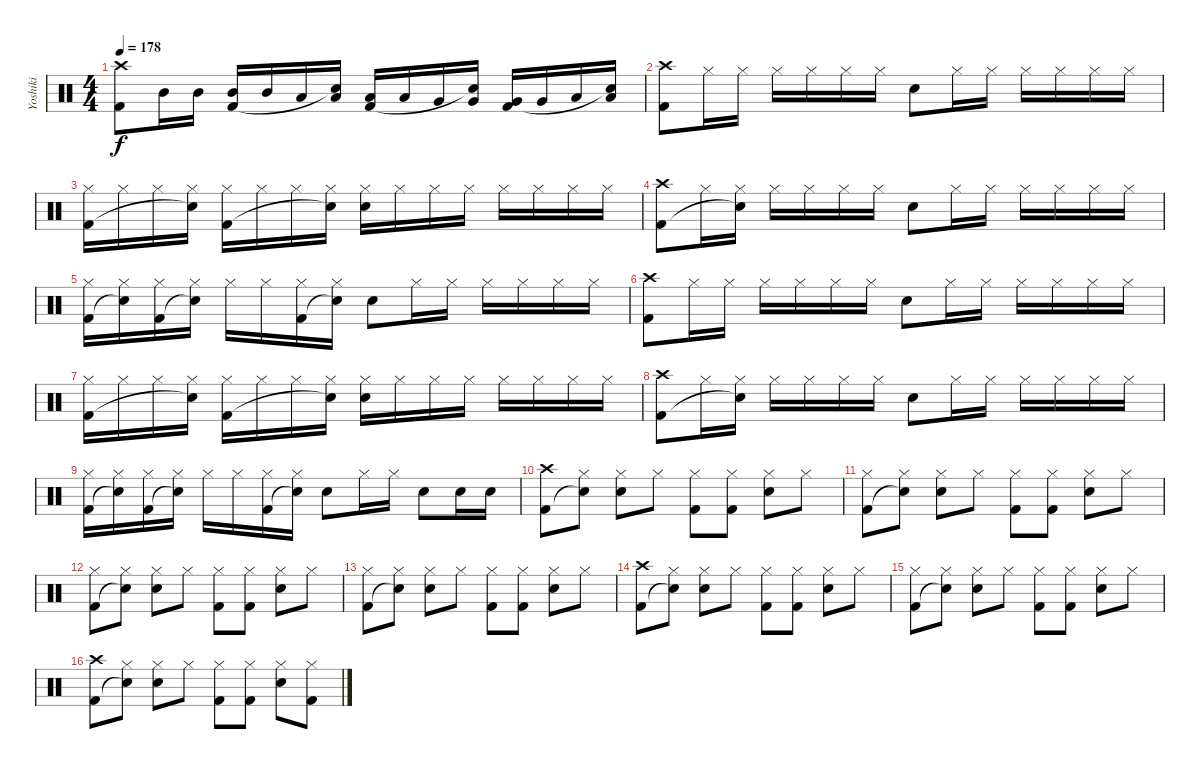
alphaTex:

\track ("Yoshiki" "Yoshiki") {instrument percussion}
\staff {score}
\articulation defaults
\ts (4 4)
\tempo 178
\clef neutral
\ks c
("Crash high (hit)" "Kick (hit) 2").8{dy f} "Mid Tom (hit)".16 "Mid Tom (hit)".16 ("Mid Tom (hit)" "Kick (hit) 2").16 "Mid Tom (hit)".16 "Low Tom (hit)".16 ("Low Tom (hit)" "Snare (hit)"{t}).16 ("Low Tom (hit)" "Kick (hit) 2").16 "Low Tom (hit)".16 "Very Low Tom (hit)".16 ("Very Low Tom (hit)" "Snare (hit)"{t}).16 ("Very Low Tom (hit)" "Kick (hit) 2").16 "Very Low Tom (hit)".16 "Low Floor Tom (hit)".16 ("Low Floor Tom (hit)" "Snare (hit)"{t}).16 |
\section ("" "")
("Crash high (hit)" "Kick (hit) 2").8 "Hi-Hat (closed)".16 "Hi-Hat (closed)".16 "Hi-Hat (closed)".16 "Hi-Hat (closed)".16 "Hi-Hat (closed)".16 "Hi-Hat (closed)".16 "Snare (hit) 2".8 "Hi-Hat (closed)".16 "Hi-Hat (closed)".16 "Hi-Hat (closed)".16 "Hi-Hat (closed)".16 "Hi-Hat (closed)".16 "Hi-Hat (closed)".16 |
("Hi-Hat (closed)" "Kick (hit) 2").16 "Hi-Hat (closed)".16 "Hi-Hat (closed)".16 ("Hi-Hat (closed)" "Snare (hit)"{t}).16 ("Hi-Hat (closed)" "Kick (hit) 2").16 "Hi-Hat (closed)".16 "Hi-Hat (closed)".16 ("Hi-Hat (closed)" "Snare (hit)"{t}).16 ("Hi-Hat (closed)" "Snare (hit) 2").16 "Hi-Hat (closed)".16 "Hi-Hat (closed)".16 "Hi-Hat (closed)".16 "Hi-Hat (closed)".16 "Hi-Hat (closed)".16 "Hi-Hat (closed)".16 "Hi-Hat (closed)".16 |
("Crash high (hit)" "Kick (hit) 2").8 "Hi-Hat (closed)".16 ("Hi-Hat (closed)" "Snare (hit)"{t}).16 "Hi-Hat (closed)".16 "Hi-Hat (closed)".16 "Hi-Hat (closed)".16 "Hi-Hat (closed)".16 "Snare (hit) 2".8 "Hi-Hat (closed)".16 "Hi-Hat (closed)".16 "Hi-Hat (closed)".16 "Hi-Hat (closed)".16 "Hi-Hat (closed)".16 "Hi-Hat (closed)".16 |
("Hi-Hat (closed)" "Kick (hit) 2").16 ("Hi-Hat (closed)" "Snare (hit)"{t}).16 ("Hi-Hat (closed)" "Kick (hit) 2").16 ("Hi-Hat (closed)" "Snare (hit)"{t}).16 "Hi-Hat (closed)".16 "Hi-Hat (closed)".16 ("Hi-Hat (closed)" "Kick (hit) 2").16 ("Hi-Hat (closed)" "Snare (hit)"{t}).16 "Snare (hit) 2".8 "Hi-Hat (closed)".16 "Hi-Hat (closed)".16 "Hi-Hat (closed)".16 "Hi-Hat (closed)".16 "Hi-Hat (closed)".16 "Hi-Hat (closed)".16 |
("Crash high (hit)" "Kick (hit) 2").8 "Hi-Hat (closed)".16 "Hi-Hat (closed)".16 "Hi-Hat (closed)".16 "Hi-Hat (closed)".16 "Hi-Hat (closed)".16 "Hi-Hat (closed)".16 "Snare (hit) 2".8 "Hi-Hat (closed)".16 "Hi-Hat (closed)".16 "Hi-Hat (closed)".16 "Hi-Hat (closed)".16 "Hi-Hat (closed)".16 "Hi-Hat (closed)".16 |
("Hi-Hat (closed)" "Kick (hit) 2").16 "Hi-Hat (closed)".16 "Hi-Hat (closed)".16 ("Hi-Hat (closed)" "Snare (hit)"{t}).16 ("Hi-Hat (closed)" "Kick (hit) 2").16 "Hi-Hat (closed)".16 "Hi-Hat (closed)".16 ("Hi-Hat (closed)" "Snare (hit)"{t}).16 ("Hi-Hat (closed)" "Snare (hit) 2").16 "Hi-Hat (closed)".16 "Hi-Hat (closed)".16 "Hi-Hat (closed)".16 "Hi-Hat (closed)".16 "Hi-Hat (closed)".16 "Hi-Hat (closed)".16 "Hi-Hat (closed)".16 |
("Crash high (hit)" "Kick (hit) 2").8 "Hi-Hat (closed)".16 ("Hi-Hat (closed)" "Snare (hit)"{t}).16 "Hi-Hat (closed)".16 "Hi-Hat (closed)".16 "Hi-Hat (closed)".16 "Hi-Hat (closed)".16 "Snare (hit) 2".8 "Hi-Hat (closed)".16 "Hi-Hat (closed)".16 "Hi-Hat (closed)".16 "Hi-Hat (closed)".16 "Hi-Hat (closed)".16 "Hi-Hat (closed)".16 |
("Hi-Hat (closed)" "Kick (hit) 2").16 ("Hi-Hat (closed)" "Snare (hit)"{t}).16 ("Hi-Hat (closed)" "Kick (hit) 2").16 ("Hi-Hat (closed)" "Snare (hit)"{t}).16 "Hi-Hat (closed)".16 "Hi-Hat (closed)".16 ("Hi-Hat (closed)" "Kick (hit) 2").16 ("Hi-Hat (closed)" "Snare (hit)"{t}).16 "Snare (hit) 2".8 "Hi-Hat (closed)".16 "Hi-Hat (closed)".16 "Snare (hit) 2".8 "Snare (hit) 2".16 "Snare (hit) 2".16 |
("Crash high (hit)" "Kick (hit) 2").8 ("Hi-Hat (closed)" "Snare (hit)"{t}).8 ("Hi-Hat (closed)" "Snare (hit) 2").8 "Hi-Hat (closed)".8 ("Hi-Hat (closed)" "Kick (hit) 2").8 ("Hi-Hat (closed)" "Kick (hit) 2").8 ("Hi-Hat (closed)" "Snare (hit) 2").8 "Hi-Hat (closed)".8 |
("Hi-Hat (closed)" "Kick (hit) 2").8 ("Hi-Hat (closed)" "Snare (hit)"{t}).8 ("Hi-Hat (closed)" "Snare (hit) 2").8 "Hi-Hat (closed)".8 ("Hi-Hat (closed)" "Kick (hit) 2").8 ("Hi-Hat (closed)" "Kick (hit) 2").8 ("Hi-Hat (closed)" "Snare (hit) 2").8 "Hi-Hat (closed)".8 |
("Hi-Hat (closed)" "Kick (hit) 2").8 ("Hi-Hat (closed)" "Snare (hit)"{t}).8 ("Hi-Hat (closed)" "Snare (hit) 2").8 "Hi-Hat (closed)".8 ("Hi-Hat (closed)" "Kick (hit) 2").8 ("Hi-Hat (closed)" "Kick (hit) 2").8 ("Hi-Hat (closed)" "Snare (hit) 2").8 "Hi-Hat (closed)".8 |
("Hi-Hat (closed)" "Kick (hit) 2").8 ("Hi-Hat (closed)" "Snare (hit)"{t}).8 ("Hi-Hat (closed)" "Snare (hit) 2").8 "Hi-Hat (closed)".8 ("Hi-Hat (closed)" "Kick (hit) 2").8 ("Hi-Hat (closed)" "Kick (hit) 2").8 ("Hi-Hat (closed)" "Snare (hit) 2").8 "Hi-Hat (closed)".8 |
("Crash high (hit)" "Kick (hit) 2").8 ("Hi-Hat (closed)" "Snare (hit)"{t}).8 ("Hi-Hat (closed)" "Snare (hit) 2").8 "Hi-Hat (closed)".8 ("Hi-Hat (closed)" "Kick (hit) 2").8 ("Hi-Hat (closed)" "Kick (hit) 2").8 ("Hi-Hat (closed)" "Snare (hit) 2").8 "Hi-Hat (closed)".8 |
("Hi-Hat (closed)" "Kick (hit) 2").8 ("Hi-Hat (closed)" "Snare (hit)"{t}).8 ("Hi-Hat (closed)" "Snare (hit) 2").8 "Hi-Hat (closed)".8 ("Hi-Hat (closed)" "Kick (hit) 2").8 ("Hi-Hat (closed)" "Kick (hit) 2").8 ("Hi-Hat (closed)" "Snare (hit) 2").8 "Hi-Hat (closed)".8 |
("Crash high (hit)" "Kick (hit) 2").8 ("Hi-Hat (closed)" "Snare (hit)"{t}).8 ("Hi-Hat (closed)" "Snare (hit) 2").8 "Hi-Hat (closed)".8 ("Hi-Hat (closed)" "Kick (hit) 2").8 ("Hi-Hat (closed)" "Kick (hit) 2").8 ("Hi-Hat (closed)" "Snare (hit) 2").8 ("Hi-Hat (closed)" "Kick (hit) 2").8
